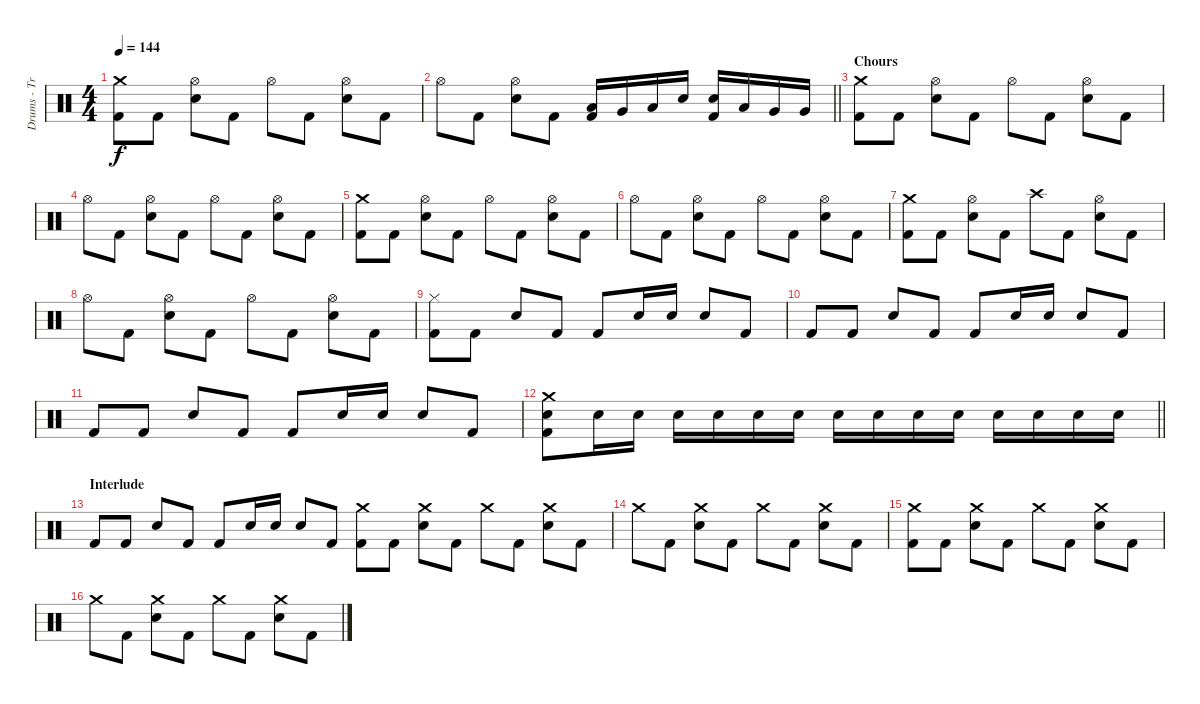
\track ("Drums - Tre Cool" "Drums - Tr") {instrument percussion}
\staff {score}
\articulation defaults
\ts (4 4)
\tempo 144
\clef neutral
\ks c
("Crash medium (hit)" "Kick (hit) 2").8{dy f} "Kick (hit) 2".8 ("Hi-Hat (open)" "Snare (hit) 2").8 "Kick (hit) 2".8 "Hi-Hat (open)".8 "Kick (hit) 2".8 ("Hi-Hat (open)" "Snare (hit) 2").8 "Kick (hit) 2".8 |
\barLineRight lightlight "Hi-Hat (open)".8 "Kick (hit) 2".8
("Hi-Hat (open)" "Snare (hit) 2").8 "Kick (hit) 2".8 ("Low Floor Tom (hit)" "Kick (hit) 2").16 "Very Low Tom (hit)".16 "Low Floor Tom (hit)".16 "Snare (hit) 2".16 ("Snare (hit) 2" "Kick (hit) 2").16 "Low Floor Tom (hit)".16 "Very Low Tom (hit)".16 "Very Low Tom (hit)".16 |
\section ("" "Chours")
("Crash medium (hit)" "Kick (hit) 2").8 "Kick (hit) 2".8 ("Hi-Hat (open)" "Snare (hit) 2").8 "Kick (hit) 2".8 "Hi-Hat (open)".8 "Kick (hit) 2".8 ("Hi-Hat (open)" "Snare (hit) 2").8 "Kick (hit) 2".8 |
"Hi-Hat (open)".8 "Kick (hit) 2".8 ("Hi-Hat (open)" "Snare (hit) 2").8 "Kick (hit) 2".8 "Hi-Hat (open)".8 "Kick (hit) 2".8 ("Hi-Hat (open)" "Snare (hit) 2").8 "Kick (hit) 2".8 |
("Crash medium (hit)" "Kick (hit) 2").8 "Kick (hit) 2".8 ("Hi-Hat (open)" "Snare (hit) 2").8 "Kick (hit) 2".8 "Hi-Hat (open)".8 "Kick (hit) 2".8 ("Hi-Hat (open)" "Snare (hit) 2").8 "Kick (hit) 2".8 |
"Hi-Hat (open)".8 "Kick (hit) 2".8 ("Hi-Hat (open)" "Snare (hit) 2").8 "Kick (hit) 2".8 "Hi-Hat (open)".8 "Kick (hit) 2".8 ("Hi-Hat (open)" "Snare (hit) 2").8 "Kick (hit) 2".8 |
("Crash medium (hit)" "Kick (hit) 2").8 "Kick (hit) 2".8 ("Hi-Hat (open)" "Snare (hit) 2").8 "Kick (hit) 2".8 "Crash high (hit)".8 "Kick (hit) 2".8 ("Hi-Hat (open)" "Snare (hit) 2").8 "Kick (hit) 2".8 |
"Hi-Hat (open)".8 "Kick (hit) 2".8 ("Hi-Hat (open)" "Snare (hit) 2").8 "Kick (hit) 2".8 "Hi-Hat (open)".8 "Kick (hit) 2".8 ("Hi-Hat (open)" "Snare (hit) 2").8 "Kick (hit) 2".8 |
("Hi-Hat (closed)" "Kick (hit) 2").8 "Kick (hit) 2".8 "Snare (hit) 2".8 "Kick (hit) 2".8 "Kick (hit) 2".8 "Snare (hit) 2".16 "Snare (hit) 2".16 "Snare (hit) 2".8 "Kick (hit) 2".8 |
"Kick (hit) 2".8 "Kick (hit) 2".8 "Snare (hit) 2".8 "Kick (hit) 2".8 "Kick (hit) 2".8 "Snare (hit) 2".16 "Snare (hit) 2".16 "Snare (hit) 2".8 "Kick (hit) 2".8 |
"Kick (hit) 2".8 "Kick (hit) 2".8 "Snare (hit) 2".8 "Kick (hit) 2".8 "Kick (hit) 2".8 "Snare (hit) 2".16 "Snare (hit) 2".16 "Snare (hit) 2".8 "Kick (hit) 2".8 |
\barLineRight lightlight
("Crash medium (hit)" "Snare (hit) 2" "Kick (hit) 2").8 "Snare (hit) 2".16 "Snare (hit) 2".16 "Snare (hit) 2".16 "Snare (hit) 2".16 "Snare (hit) 2".16 "Snare (hit) 2".16 "Snare (hit) 2".16 "Snare (hit) 2".16 "Snare (hit) 2".16 "Snare (hit) 2".16 "Snare (hit) 2".16 "Snare (hit) 2".16 "Snare (hit) 2".16 "Snare (hit) 2".16 |
\section ("" "Interlude")
"Kick (hit) 2".8 "Kick (hit) 2".8 "Snare (hit) 2".8 "Kick (hit) 2".8 "Kick (hit) 2".8 "Snare (hit) 2".16 "Snare (hit) 2".16 "Snare (hit) 2".8 "Kick (hit) 2".8 ("Crash medium (hit)" "Kick (hit) 2").8 "Kick (hit) 2".8 ("Crash medium (hit)" "Snare (hit) 2").8 "Kick (hit) 2".8 "Crash medium (hit)".8 "Kick (hit) 2".8 ("Crash medium (hit)" "Snare (hit) 2").8 "Kick (hit) 2".8 |
"Crash medium (hit)".8 "Kick (hit) 2".8 ("Crash medium (hit)" "Snare (hit) 2").8 "Kick (hit) 2".8 "Crash medium (hit)".8 "Kick (hit) 2".8 ("Crash medium (hit)" "Snare (hit) 2").8 "Kick (hit) 2".8 |
("Crash medium (hit)" "Kick (hit) 2").8 "Kick (hit) 2".8 ("Crash medium (hit)" "Snare (hit) 2").8 "Kick (hit) 2".8 "Crash medium (hit)".8 "Kick (hit) 2".8 ("Crash medium (hit)" "Snare (hit) 2").8 "Kick (hit) 2".8 |
"Crash medium (hit)".8 "Kick (hit) 2".8 ("Crash medium (hit)" "Snare (hit) 2").8 "Kick (hit) 2".8 "Crash medium (hit)".8 "Kick (hit) 2".8 ("Crash medium (hit)" "Snare (hit) 2").8 "Kick (hit) 2".8
